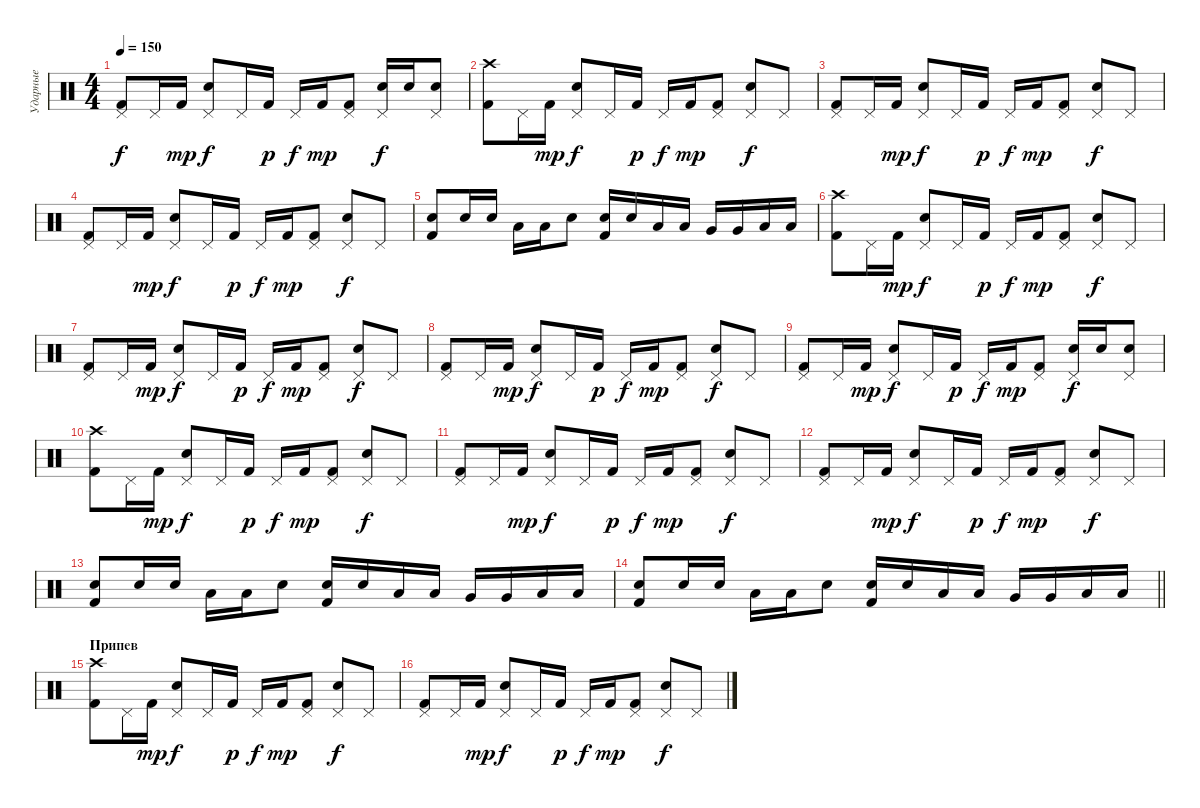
\track ("Ударные" "Ударные") {instrument percussion}
\staff {score}
\articulation defaults
\ts (4 4)
\tempo 150
\clef neutral
\ks c
("Pedal Hi-Hat (hit)" "Kick (hit) 2").8{dy f} "Pedal Hi-Hat (hit)".16 "Kick (hit) 2".16{dy mp} ("Pedal Hi-Hat (hit)" "Snare (hit) 2").8{dy f} "Pedal Hi-Hat (hit)".16 "Kick (hit) 2".16{dy p} "Pedal Hi-Hat (hit)".16{dy f} "Kick (hit) 2".16{dy mp} ("Pedal Hi-Hat (hit)" "Kick (hit) 2").8 ("Pedal Hi-Hat (hit)" "Snare (hit) 2").16{dy f} "Snare (hit) 2".16 ("Pedal Hi-Hat (hit)" "Snare (hit) 2").8 |
("Crash high (hit)" "Kick (hit) 2").8 "Pedal Hi-Hat (hit)".16 "Kick (hit) 2".16{dy mp} ("Pedal Hi-Hat (hit)" "Snare (hit) 2").8{dy f} "Pedal Hi-Hat (hit)".16 "Kick (hit) 2".16{dy p} "Pedal Hi-Hat (hit)".16{dy f} "Kick (hit) 2".16{dy mp} ("Pedal Hi-Hat (hit)" "Kick (hit) 2").8 ("Pedal Hi-Hat (hit)" "Snare (hit) 2").8{dy f} "Pedal Hi-Hat (hit)".8 |
("Pedal Hi-Hat (hit)" "Kick (hit) 2").8 "Pedal Hi-Hat (hit)".16 "Kick (hit) 2".16{dy mp} ("Pedal Hi-Hat (hit)" "Snare (hit) 2").8{dy f} "Pedal Hi-Hat (hit)".16 "Kick (hit) 2".16{dy p} "Pedal Hi-Hat (hit)".16{dy f} "Kick (hit) 2".16{dy mp} ("Pedal Hi-Hat (hit)" "Kick (hit) 2").8 ("Pedal Hi-Hat (hit)" "Snare (hit) 2").8{dy f} "Pedal Hi-Hat (hit)".8 |
("Pedal Hi-Hat (hit)" "Kick (hit) 2").8 "Pedal Hi-Hat (hit)".16 "Kick (hit) 2".16{dy mp} ("Pedal Hi-Hat (hit)" "Snare (hit) 2").8{dy f} "Pedal Hi-Hat (hit)".16 "Kick (hit) 2".16{dy p} "Pedal Hi-Hat (hit)".16{dy f} "Kick (hit) 2".16{dy mp} ("Pedal Hi-Hat (hit)" "Kick (hit) 2").8 ("Pedal Hi-Hat (hit)" "Snare (hit) 2").8{dy f} "Pedal Hi-Hat (hit)".8 |
("Snare (hit) 2" "Kick (hit) 2").8 "Snare (hit) 2".16 "Snare (hit) 2".16 "Low Floor Tom (hit)".16 "Low Floor Tom (hit)".16 "Snare (hit) 2".8 ("Snare (hit) 2" "Kick (hit) 2").16 "Snare (hit) 2".16 "Low Tom (hit)".16 "Low Tom (hit)".16 "Very Low Tom (hit)".16 "Very Low Tom (hit)".16 "Low Floor Tom (hit)".16 "Low Floor Tom (hit)".16 |
("Crash high (hit)" "Kick (hit) 2").8 "Pedal Hi-Hat (hit)".16 "Kick (hit) 2".16{dy mp} ("Pedal Hi-Hat (hit)" "Snare (hit) 2").8{dy f} "Pedal Hi-Hat (hit)".16 "Kick (hit) 2".16{dy p} "Pedal Hi-Hat (hit)".16{dy f} "Kick (hit) 2".16{dy mp} ("Pedal Hi-Hat (hit)" "Kick (hit) 2").8 ("Pedal Hi-Hat (hit)" "Snare (hit) 2").8{dy f} "Pedal Hi-Hat (hit)".8 |
("Pedal Hi-Hat (hit)" "Kick (hit) 2").8 "Pedal Hi-Hat (hit)".16 "Kick (hit) 2".16{dy mp} ("Pedal Hi-Hat (hit)" "Snare (hit) 2").8{dy f} "Pedal Hi-Hat (hit)".16 "Kick (hit) 2".16{dy p} "Pedal Hi-Hat (hit)".16{dy f} "Kick (hit) 2".16{dy mp} ("Pedal Hi-Hat (hit)" "Kick (hit) 2").8 ("Pedal Hi-Hat (hit)" "Snare (hit) 2").8{dy f} "Pedal Hi-Hat (hit)".8 |
("Pedal Hi-Hat (hit)" "Kick (hit) 2").8 "Pedal Hi-Hat (hit)".16 "Kick (hit) 2".16{dy mp} ("Pedal Hi-Hat (hit)" "Snare (hit) 2").8{dy f} "Pedal Hi-Hat (hit)".16 "Kick (hit) 2".16{dy p} "Pedal Hi-Hat (hit)".16{dy f} "Kick (hit) 2".16{dy mp} ("Pedal Hi-Hat (hit)" "Kick (hit) 2").8 ("Pedal Hi-Hat (hit)" "Snare (hit) 2").8{dy f} "Pedal Hi-Hat (hit)".8 |
("Pedal Hi-Hat (hit)" "Kick (hit) 2").8 "Pedal Hi-Hat (hit)".16 "Kick (hit) 2".16{dy mp} ("Pedal Hi-Hat (hit)" "Snare (hit) 2").8{dy f} "Pedal Hi-Hat (hit)".16 "Kick (hit) 2".16{dy p} "Pedal Hi-Hat (hit)".16{dy f} "Kick (hit) 2".16{dy mp} ("Pedal Hi-Hat (hit)" "Kick (hit) 2").8 ("Pedal Hi-Hat (hit)" "Snare (hit) 2").16{dy f} "Snare (hit) 2".16 ("Pedal Hi-Hat (hit)" "Snare (hit) 2").8 |
("Crash high (hit)" "Kick (hit) 2").8 "Pedal Hi-Hat (hit)".16 "Kick (hit) 2".16{dy mp} ("Pedal Hi-Hat (hit)" "Snare (hit) 2").8{dy f} "Pedal Hi-Hat (hit)".16 "Kick (hit) 2".16{dy p} "Pedal Hi-Hat (hit)".16{dy f} "Kick (hit) 2".16{dy mp} ("Pedal Hi-Hat (hit)" "Kick (hit) 2").8 ("Pedal Hi-Hat (hit)" "Snare (hit) 2").8{dy f} "Pedal Hi-Hat (hit)".8 |
("Pedal Hi-Hat (hit)" "Kick (hit) 2").8 "Pedal Hi-Hat (hit)".16 "Kick (hit) 2".16{dy mp} ("Pedal Hi-Hat (hit)" "Snare (hit) 2").8{dy f} "Pedal Hi-Hat (hit)".16 "Kick (hit) 2".16{dy p} "Pedal Hi-Hat (hit)".16{dy f} "Kick (hit) 2".16{dy mp} ("Pedal Hi-Hat (hit)" "Kick (hit) 2").8 ("Pedal Hi-Hat (hit)" "Snare (hit) 2").8{dy f} "Pedal Hi-Hat (hit)".8 |
("Pedal Hi-Hat (hit)" "Kick (hit) 2").8 "Pedal Hi-Hat (hit)".16 "Kick (hit) 2".16{dy mp} ("Pedal Hi-Hat (hit)" "Snare (hit) 2").8{dy f} "Pedal Hi-Hat (hit)".16 "Kick (hit) 2".16{dy p} "Pedal Hi-Hat (hit)".16{dy f} "Kick (hit) 2".16{dy mp} ("Pedal Hi-Hat (hit)" "Kick (hit) 2").8 ("Pedal Hi-Hat (hit)" "Snare (hit) 2").8{dy f} "Pedal Hi-Hat (hit)".8 |
("Snare (hit) 2" "Kick (hit) 2").8 "Snare (hit) 2".16 "Snare (hit) 2".16 "Low Floor Tom (hit)".16 "Low Floor Tom (hit)".16 "Snare (hit) 2".8 ("Snare (hit) 2" "Kick (hit) 2").16 "Snare (hit) 2".16 "Low Tom (hit)".16 "Low Tom (hit)".16 "Very Low Tom (hit)".16 "Very Low Tom (hit)".16 "Low Floor Tom (hit)".16 "Low Floor Tom (hit)".16 |
\barLineRight lightlight
("Snare (hit) 2" "Kick (hit) 2").8 "Snare (hit) 2".16 "Snare (hit) 2".16 "Low Floor Tom (hit)".16 "Low Floor Tom (hit)".16 "Snare (hit) 2".8 ("Snare (hit) 2" "Kick (hit) 2").16 "Snare (hit) 2".16 "Low Tom (hit)".16 "Low Tom (hit)".16 "Very Low Tom (hit)".16 "Very Low Tom (hit)".16 "Low Floor Tom (hit)".16 "Low Floor Tom (hit)".16 |
\section ("" "Припев")
("Crash high (hit)" "Kick (hit) 2").8 "Pedal Hi-Hat (hit)".16 "Kick (hit) 2".16{dy mp} ("Pedal Hi-Hat (hit)" "Snare (hit) 2").8{dy f} "Pedal Hi-Hat (hit)".16 "Kick (hit) 2".16{dy p} "Pedal Hi-Hat (hit)".16{dy f} "Kick (hit) 2".16{dy mp} ("Pedal Hi-Hat (hit)" "Kick (hit) 2").8 ("Pedal Hi-Hat (hit)" "Snare (hit) 2").8{dy f} "Pedal Hi-Hat (hit)".8 |
("Pedal Hi-Hat (hit)" "Kick (hit) 2").8 "Pedal Hi-Hat (hit)".16 "Kick (hit) 2".16{dy mp} ("Pedal Hi-Hat (hit)" "Snare (hit) 2").8{dy f} "Pedal Hi-Hat (hit)".16 "Kick (hit) 2".16{dy p} "Pedal Hi-Hat (hit)".16{dy f} "Kick (hit) 2".16{dy mp} ("Pedal Hi-Hat (hit)" "Kick (hit) 2").8 ("Pedal Hi-Hat (hit)" "Snare (hit) 2").8{dy f} "Pedal Hi-Hat (hit)".8
